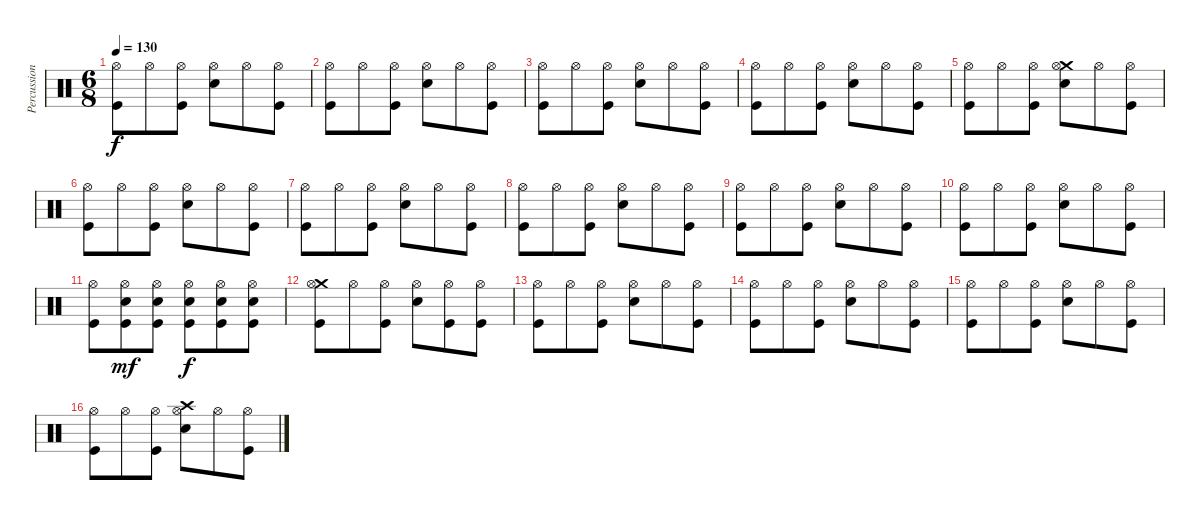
\track ("Percussion" "Percussion") {instrument percussion}
\staff {score}
\articulation defaults
\ts (6 8)
\tempo 130
\clef neutral
\ks c
("Hi-Hat (open)" "Kick (hit)").8{dy f} "Hi-Hat (open)".8 ("Hi-Hat (open)" "Kick (hit)").8 ("Hi-Hat (open)" "Snare (hit) 2").8 "Hi-Hat (open)".8 ("Hi-Hat (open)" "Kick (hit)").8 |
("Hi-Hat (open)" "Kick (hit)").8 "Hi-Hat (open)".8 ("Hi-Hat (open)" "Kick (hit)").8 ("Hi-Hat (open)" "Snare (hit) 2").8 "Hi-Hat (open)".8 ("Hi-Hat (open)" "Kick (hit)").8 |
("Hi-Hat (open)" "Kick (hit)").8 "Hi-Hat (open)".8 ("Hi-Hat (open)" "Kick (hit)").8 ("Hi-Hat (open)" "Snare (hit) 2").8 "Hi-Hat (open)".8 ("Hi-Hat (open)" "Kick (hit)").8 |
("Hi-Hat (open)" "Kick (hit)").8 "Hi-Hat (open)".8 ("Hi-Hat (open)" "Kick (hit)").8 ("Hi-Hat (open)" "Snare (hit) 2").8 "Hi-Hat (open)".8 ("Hi-Hat (open)" "Kick (hit)").8 |
("Hi-Hat (open)" "Kick (hit)").8 "Hi-Hat (open)".8 ("Hi-Hat (open)" "Kick (hit)").8 ("Crash medium (hit)" "Hi-Hat (open)" "Snare (hit) 2").8 "Hi-Hat (open)".8 ("Hi-Hat (open)" "Kick (hit)").8 |
("Hi-Hat (open)" "Kick (hit)").8 "Hi-Hat (open)".8 ("Hi-Hat (open)" "Kick (hit)").8 ("Hi-Hat (open)" "Snare (hit) 2").8 "Hi-Hat (open)".8 ("Hi-Hat (open)" "Kick (hit)").8 |
("Hi-Hat (open)" "Kick (hit)").8 "Hi-Hat (open)".8 ("Hi-Hat (open)" "Kick (hit)").8 ("Hi-Hat (open)" "Snare (hit) 2").8 "Hi-Hat (open)".8 ("Hi-Hat (open)" "Kick (hit)").8 |
("Hi-Hat (open)" "Kick (hit)").8 "Hi-Hat (open)".8 ("Hi-Hat (open)" "Kick (hit)").8 ("Hi-Hat (open)" "Snare (hit) 2").8 "Hi-Hat (open)".8 ("Hi-Hat (open)" "Kick (hit)").8 |
("Hi-Hat (open)" "Kick (hit)").8 "Hi-Hat (open)".8 ("Hi-Hat (open)" "Kick (hit)").8 ("Hi-Hat (open)" "Snare (hit) 2").8 "Hi-Hat (open)".8 ("Hi-Hat (open)" "Kick (hit)").8 |
("Hi-Hat (open)" "Kick (hit)").8 "Hi-Hat (open)".8 ("Hi-Hat (open)" "Kick (hit)").8 ("Hi-Hat (open)" "Snare (hit) 2").8 "Hi-Hat (open)".8 ("Hi-Hat (open)" "Kick (hit)").8 |
("Hi-Hat (open)" "Kick (hit)").8 ("Hi-Hat (open)" "Snare (hit) 2" "Kick (hit)").8{dy mf} ("Hi-Hat (open)" "Snare (hit) 2" "Kick (hit)").8 ("Hi-Hat (open)" "Snare (hit) 2" "Kick (hit)").8{dy f} ("Hi-Hat (open)" "Snare (hit) 2" "Kick (hit)").8 ("Hi-Hat (open)" "Snare (hit) 2" "Kick (hit)").8 |
("Crash medium (hit)" "Hi-Hat (open)" "Kick (hit)").8 "Hi-Hat (open)".8 ("Hi-Hat (open)" "Kick (hit)").8 ("Hi-Hat (open)" "Snare (hit) 2").8 ("Hi-Hat (open)" "Kick (hit)").8 ("Hi-Hat (open)" "Kick (hit)").8 |
("Hi-Hat (open)" "Kick (hit)").8 "Hi-Hat (open)".8 ("Hi-Hat (open)" "Kick (hit)").8 ("Hi-Hat (open)" "Snare (hit) 2").8 "Hi-Hat (open)".8 ("Hi-Hat (open)" "Kick (hit)").8 |
("Hi-Hat (open)" "Kick (hit)").8 "Hi-Hat (open)".8 ("Hi-Hat (open)" "Kick (hit)").8 ("Hi-Hat (open)" "Snare (hit) 2").8 "Hi-Hat (open)".8 ("Hi-Hat (open)" "Kick (hit)").8 |
("Hi-Hat (open)" "Kick (hit)").8 "Hi-Hat (open)".8 ("Hi-Hat (open)" "Kick (hit)").8 ("Hi-Hat (open)" "Snare (hit) 2").8 "Hi-Hat (open)".8 ("Hi-Hat (open)" "Kick (hit)").8 |
("Hi-Hat (open)" "Kick (hit)").8 "Hi-Hat (open)".8 ("Hi-Hat (open)" "Kick (hit)").8 ("Crash high (hit)" "Hi-Hat (open)" "Snare (hit) 2").8 "Hi-Hat (open)".8 ("Hi-Hat (open)" "Kick (hit)").8
